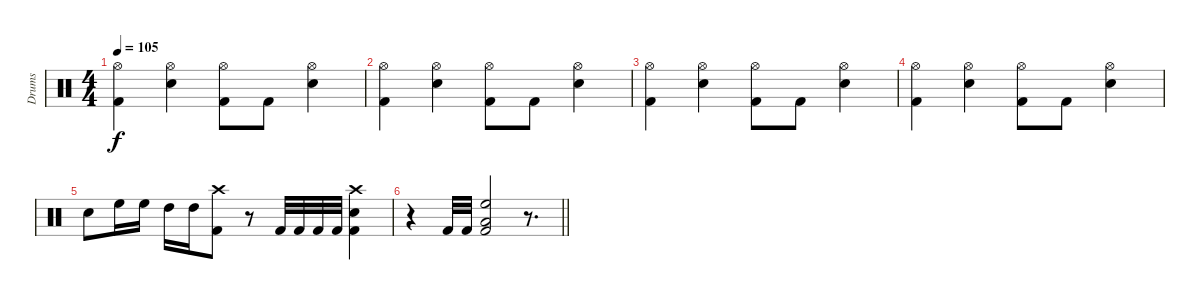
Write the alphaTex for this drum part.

\track ("Drums" "Drums") {instrument percussion}
\staff {score}
\articulation defaults
\ts (4 4)
\tempo 105
\clef neutral
\ks c
("Hi-Hat (open)" "Kick (hit) 2").4{dy f} ("Electric Snare (hit)" "Hi-Hat (open)").4 ("Hi-Hat (open)" "Kick (hit) 2").8 "Kick (hit) 2".8 ("Hi-Hat (open)" "Electric Snare (hit)").4 |
("Hi-Hat (open)" "Kick (hit) 2").4 ("Electric Snare (hit)" "Hi-Hat (open)").4 ("Hi-Hat (open)" "Kick (hit) 2").8 "Kick (hit) 2".8 ("Hi-Hat (open)" "Electric Snare (hit)").4 |
("Hi-Hat (open)" "Kick (hit) 2").4 ("Electric Snare (hit)" "Hi-Hat (open)").4 ("Hi-Hat (open)" "Kick (hit) 2").8 "Kick (hit) 2".8 ("Hi-Hat (open)" "Electric Snare (hit)").4 |
("Hi-Hat (open)" "Kick (hit) 2").4 ("Electric Snare (hit)" "Hi-Hat (open)").4 ("Hi-Hat (open)" "Kick (hit) 2").8 "Kick (hit) 2".8 ("Hi-Hat (open)" "Electric Snare (hit)").4 |
"Electric Snare (hit)".8 "High Floor Tom (hit)".16 "High Floor Tom (hit)".16 "High Tom (hit)".16 "High Tom (hit)".16 ("Crash high (hit)" "Kick (hit) 2").8 r.8 "Kick (hit) 2".32 "Kick (hit) 2".32 "Kick (hit) 2".32 "Kick (hit) 2".32 ("Kick (hit) 2" "Crash high (hit)" "Electric Snare (hit)").4 |
\barLineRight lightlight
r.4 "Kick (hit) 2".32 "Kick (hit) 2".32 ("Kick (hit) 2" "High Floor Tom (hit)" "Low Floor Tom (hit)").2 r.8{d}
